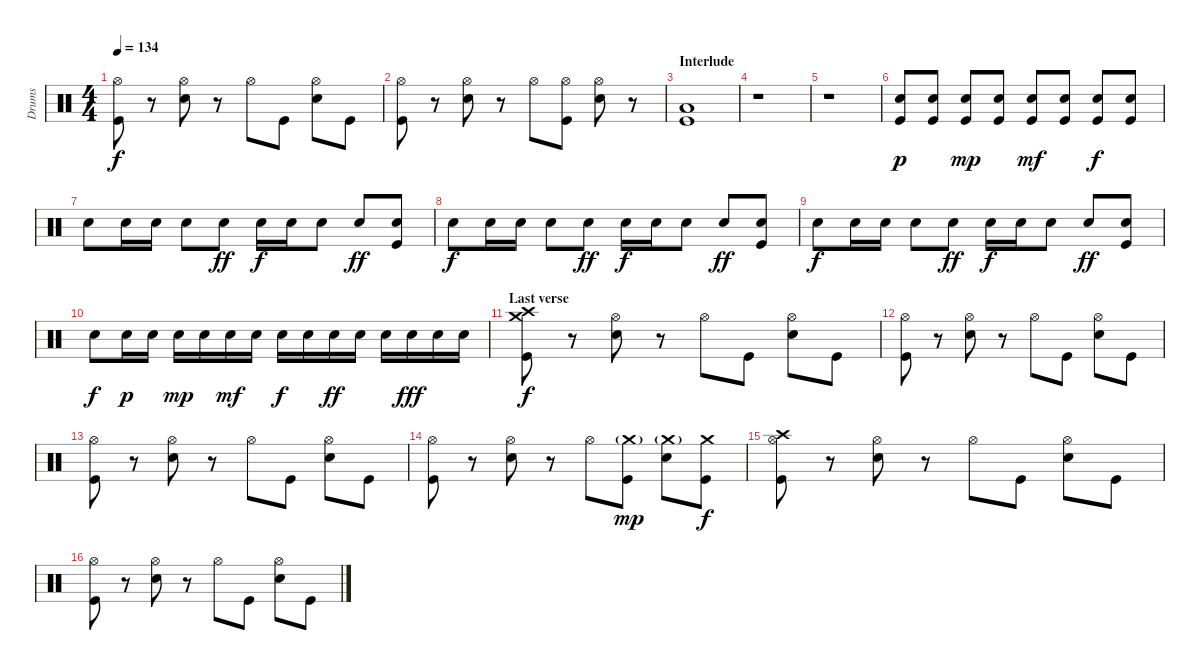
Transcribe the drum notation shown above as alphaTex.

\track ("Drums" "Drums") {instrument percussion}
\staff {score}
\articulation defaults
\ts (4 4)
\tempo 134
\clef neutral
\ks c
("Hi-Hat (open)" "Kick (hit)").8{dy f} r.8 ("Hi-Hat (open)" "Electric Snare (hit)").8 r.8 "Hi-Hat (open)".8 "Kick (hit)".8 ("Hi-Hat (open)" "Electric Snare (hit)").8 "Kick (hit)".8 |
("Hi-Hat (open)" "Kick (hit)").8 r.8 ("Hi-Hat (open)" "Electric Snare (hit)").8 r.8 "Hi-Hat (open)".8 ("Hi-Hat (open)" "Kick (hit)").8 ("Hi-Hat (open)" "Electric Snare (hit)").8 r.8 |
\section ("" "Interlude")
("Low Floor Tom (hit)" "Kick (hit)").1 |
r.1 |
r.1 |
("Electric Snare (hit)" "Kick (hit)").8{dy p} ("Electric Snare (hit)" "Kick (hit)").8 ("Electric Snare (hit)" "Kick (hit)").8{dy mp} ("Electric Snare (hit)" "Kick (hit)").8 ("Electric Snare (hit)" "Kick (hit)").8{dy mf} ("Electric Snare (hit)" "Kick (hit)").8 ("Electric Snare (hit)" "Kick (hit)").8{dy f} ("Electric Snare (hit)" "Kick (hit)").8 |
"Electric Snare (hit)".8 "Electric Snare (hit)".16 "Electric Snare (hit)".16 "Electric Snare (hit)".8 "Electric Snare (hit)".8{dy ff} "Electric Snare (hit)".16{dy f} "Electric Snare (hit)".16 "Electric Snare (hit)".8 "Electric Snare (hit)".8{dy ff} ("Electric Snare (hit)" "Kick (hit)").8 |
"Electric Snare (hit)".8{dy f} "Electric Snare (hit)".16 "Electric Snare (hit)".16 "Electric Snare (hit)".8 "Electric Snare (hit)".8{dy ff} "Electric Snare (hit)".16{dy f} "Electric Snare (hit)".16 "Electric Snare (hit)".8 "Electric Snare (hit)".8{dy ff} ("Electric Snare (hit)" "Kick (hit)").8 |
"Electric Snare (hit)".8{dy f} "Electric Snare (hit)".16 "Electric Snare (hit)".16 "Electric Snare (hit)".8 "Electric Snare (hit)".8{dy ff} "Electric Snare (hit)".16{dy f} "Electric Snare (hit)".16 "Electric Snare (hit)".8 "Electric Snare (hit)".8{dy ff} ("Electric Snare (hit)" "Kick (hit)").8 |
"Electric Snare (hit)".8{dy f} "Electric Snare (hit)".16{dy p} "Electric Snare (hit)".16 "Electric Snare (hit)".16{dy mp} "Electric Snare (hit)".16 "Electric Snare (hit)".16{dy mf} "Electric Snare (hit)".16 "Electric Snare (hit)".16{dy f} "Electric Snare (hit)".16 "Electric Snare (hit)".16{dy ff} "Electric Snare (hit)".16 "Electric Snare (hit)".16 "Electric Snare (hit)".16{dy fff} "Electric Snare (hit)".16 "Electric Snare (hit)".16 |
\section ("" "Last verse")
("Crash high (hit)" "Crash medium (hit)" "Kick (hit)").8{dy f} r.8 ("Hi-Hat (open)" "Electric Snare (hit)").8 r.8 "Hi-Hat (open)".8 "Kick (hit)".8 ("Hi-Hat (open)" "Electric Snare (hit)").8 "Kick (hit)".8 |
("Hi-Hat (open)" "Kick (hit)").8 r.8 ("Hi-Hat (open)" "Electric Snare (hit)").8 r.8 "Hi-Hat (open)".8 "Kick (hit)".8 ("Hi-Hat (open)" "Electric Snare (hit)").8 "Kick (hit)".8 |
("Hi-Hat (open)" "Kick (hit)").8 r.8 ("Hi-Hat (open)" "Electric Snare (hit)").8 r.8 "Hi-Hat (open)".8 "Kick (hit)".8 ("Hi-Hat (open)" "Electric Snare (hit)").8 "Kick (hit)".8 |
("Hi-Hat (open)" "Kick (hit)").8 r.8 ("Hi-Hat (open)" "Electric Snare (hit)").8 r.8 "Hi-Hat (open)".8 ("Crash medium (hit)"{g} "Kick (hit)").8{dy mp} ("Crash medium (hit)"{g} "Electric Snare (hit)").8 ("Crash medium (hit)" "Kick (hit)").8{dy f} |
("Hi-Hat (open)" "Crash high (hit)" "Kick (hit)").8 r.8 ("Hi-Hat (open)" "Electric Snare (hit)").8 r.8 "Hi-Hat (open)".8 "Kick (hit)".8 ("Hi-Hat (open)" "Electric Snare (hit)").8 "Kick (hit)".8 |
("Hi-Hat (open)" "Kick (hit)").8 r.8 ("Hi-Hat (open)" "Electric Snare (hit)").8 r.8 "Hi-Hat (open)".8 "Kick (hit)".8 ("Hi-Hat (open)" "Electric Snare (hit)").8 "Kick (hit)".8
